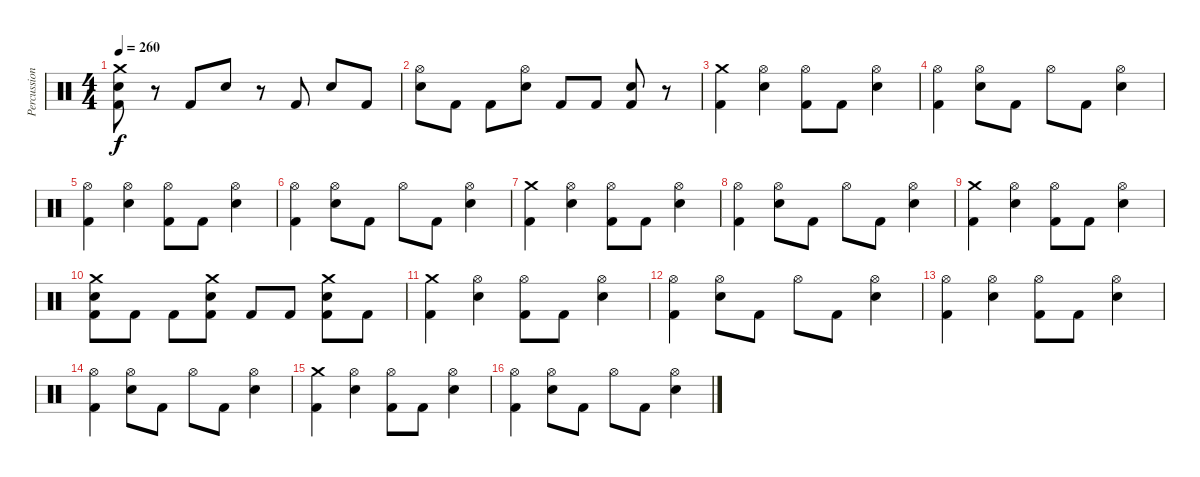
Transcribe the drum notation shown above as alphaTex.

\track ("Percussion" "Percussion") {instrument percussion}
\staff {score}
\articulation defaults
\ts (4 4)
\tempo 260
\clef neutral
\ks c
("Electric Snare (hit)" "Kick (hit) 2" "Crash medium (hit)").8{dy f} r.8 "Kick (hit) 2".8 "Electric Snare (hit)".8 r.8 "Kick (hit) 2".8 "Electric Snare (hit)".8 "Kick (hit) 2".8 |
("Hi-Hat (open)" "Electric Snare (hit)").8 "Kick (hit) 2".8 "Kick (hit) 2".8 ("Hi-Hat (open)" "Electric Snare (hit)").8 "Kick (hit) 2".8 "Kick (hit) 2".8 ("Kick (hit) 2" "Electric Snare (hit)").8 r.8 |
("Kick (hit) 2" "Crash medium (hit)").4 ("Electric Snare (hit)" "Hi-Hat (open)").4 ("Kick (hit) 2" "Hi-Hat (open)").8 "Kick (hit) 2".8 ("Electric Snare (hit)" "Hi-Hat (open)").4 |
("Kick (hit) 2" "Hi-Hat (open)").4 ("Electric Snare (hit)" "Hi-Hat (open)").8 "Kick (hit) 2".8 "Hi-Hat (open)".8 "Kick (hit) 2".8 ("Electric Snare (hit)" "Hi-Hat (open)").4 |
("Kick (hit) 2" "Hi-Hat (open)").4 ("Electric Snare (hit)" "Hi-Hat (open)").4 ("Kick (hit) 2" "Hi-Hat (open)").8 "Kick (hit) 2".8 ("Electric Snare (hit)" "Hi-Hat (open)").4 |
("Kick (hit) 2" "Hi-Hat (open)").4 ("Electric Snare (hit)" "Hi-Hat (open)").8 "Kick (hit) 2".8 "Hi-Hat (open)".8 "Kick (hit) 2".8 ("Electric Snare (hit)" "Hi-Hat (open)").4 |
("Kick (hit) 2" "Crash medium (hit)").4 ("Electric Snare (hit)" "Hi-Hat (open)").4 ("Kick (hit) 2" "Hi-Hat (open)").8 "Kick (hit) 2".8 ("Electric Snare (hit)" "Hi-Hat (open)").4 |
("Kick (hit) 2" "Hi-Hat (open)").4 ("Electric Snare (hit)" "Hi-Hat (open)").8 "Kick (hit) 2".8 "Hi-Hat (open)".8 "Kick (hit) 2".8 ("Electric Snare (hit)" "Hi-Hat (open)").4 |
("Kick (hit) 2" "Crash medium (hit)").4 ("Electric Snare (hit)" "Hi-Hat (open)").4 ("Kick (hit) 2" "Hi-Hat (open)").8 "Kick (hit) 2".8 ("Electric Snare (hit)" "Hi-Hat (open)").4 |
("Kick (hit) 2" "Electric Snare (hit)" "Crash medium (hit)").8 "Kick (hit) 2".8 "Kick (hit) 2".8 ("Kick (hit) 2" "Electric Snare (hit)" "Crash medium (hit)").8 "Kick (hit) 2".8 "Kick (hit) 2".8 ("Kick (hit) 2" "Electric Snare (hit)" "Crash medium (hit)").8 "Kick (hit) 2".8 |
("Kick (hit) 2" "Crash medium (hit)").4 ("Electric Snare (hit)" "Hi-Hat (open)").4 ("Kick (hit) 2" "Hi-Hat (open)").8 "Kick (hit) 2".8 ("Electric Snare (hit)" "Hi-Hat (open)").4 |
("Kick (hit) 2" "Hi-Hat (open)").4 ("Electric Snare (hit)" "Hi-Hat (open)").8 "Kick (hit) 2".8 "Hi-Hat (open)".8 "Kick (hit) 2".8 ("Electric Snare (hit)" "Hi-Hat (open)").4 |
("Kick (hit) 2" "Hi-Hat (open)").4 ("Electric Snare (hit)" "Hi-Hat (open)").4 ("Kick (hit) 2" "Hi-Hat (open)").8 "Kick (hit) 2".8 ("Electric Snare (hit)" "Hi-Hat (open)").4 |
("Kick (hit) 2" "Hi-Hat (open)").4 ("Electric Snare (hit)" "Hi-Hat (open)").8 "Kick (hit) 2".8 "Hi-Hat (open)".8 "Kick (hit) 2".8 ("Electric Snare (hit)" "Hi-Hat (open)").4 |
("Kick (hit) 2" "Crash medium (hit)").4 ("Electric Snare (hit)" "Hi-Hat (open)").4 ("Kick (hit) 2" "Hi-Hat (open)").8 "Kick (hit) 2".8 ("Electric Snare (hit)" "Hi-Hat (open)").4 |
("Kick (hit) 2" "Hi-Hat (open)").4 ("Electric Snare (hit)" "Hi-Hat (open)").8 "Kick (hit) 2".8 "Hi-Hat (open)".8 "Kick (hit) 2".8 ("Electric Snare (hit)" "Hi-Hat (open)").4
